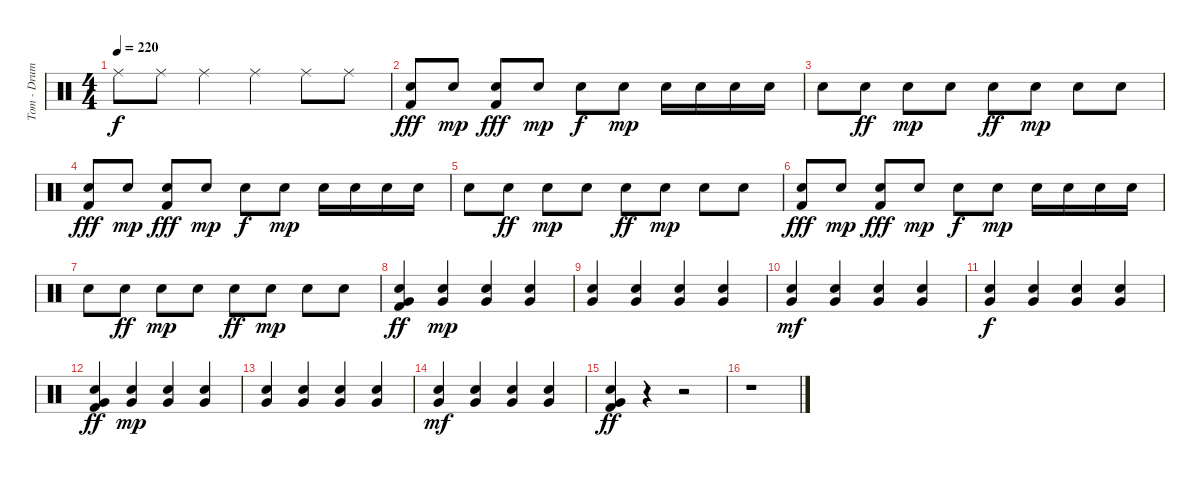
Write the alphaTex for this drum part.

\track ("Tom - Drums" "Tom - Drum") {instrument percussion}
\staff {score}
\articulation defaults
\ts (4 4)
\tempo 220
\clef neutral
\ks c "Ride (middle)".8{dy f} "Ride (middle)".8 "Ride (middle)".4 "Ride (middle)".4 "Ride (middle)".8 "Ride (middle)".8
|
("Electric Snare (hit)" "Kick (hit) 2").8{dy fff} "Electric Snare (hit)".8{dy mp} ("Electric Snare (hit)" "Kick (hit) 2").8{dy fff} "Electric Snare (hit)".8{dy mp} "Electric Snare (hit)".8{dy f} "Electric Snare (hit)".8{dy mp} "Electric Snare (hit)".16 "Electric Snare (hit)".16 "Electric Snare (hit)".16 "Electric Snare (hit)".16 |
"Electric Snare (hit)".8 "Electric Snare (hit)".8{dy ff} "Electric Snare (hit)".8{dy mp} "Electric Snare (hit)".8 "Electric Snare (hit)".8{dy ff} "Electric Snare (hit)".8{dy mp} "Electric Snare (hit)".8 "Electric Snare (hit)".8 |
("Electric Snare (hit)" "Kick (hit) 2").8{dy fff} "Electric Snare (hit)".8{dy mp} ("Electric Snare (hit)" "Kick (hit) 2").8{dy fff} "Electric Snare (hit)".8{dy mp} "Electric Snare (hit)".8{dy f} "Electric Snare (hit)".8{dy mp} "Electric Snare (hit)".16 "Electric Snare (hit)".16 "Electric Snare (hit)".16 "Electric Snare (hit)".16 |
"Electric Snare (hit)".8 "Electric Snare (hit)".8{dy ff} "Electric Snare (hit)".8{dy mp} "Electric Snare (hit)".8 "Electric Snare (hit)".8{dy ff} "Electric Snare (hit)".8{dy mp} "Electric Snare (hit)".8 "Electric Snare (hit)".8 |
("Electric Snare (hit)" "Kick (hit) 2").8{dy fff} "Electric Snare (hit)".8{dy mp} ("Electric Snare (hit)" "Kick (hit) 2").8{dy fff} "Electric Snare (hit)".8{dy mp} "Electric Snare (hit)".8{dy f} "Electric Snare (hit)".8{dy mp} "Electric Snare (hit)".16 "Electric Snare (hit)".16 "Electric Snare (hit)".16 "Electric Snare (hit)".16 |
"Electric Snare (hit)".8 "Electric Snare (hit)".8{dy ff} "Electric Snare (hit)".8{dy mp} "Electric Snare (hit)".8 "Electric Snare (hit)".8{dy ff} "Electric Snare (hit)".8{dy mp} "Electric Snare (hit)".8 "Electric Snare (hit)".8 |
("Electric Snare (hit)" "Very Low Tom (hit)" "Kick (hit) 2").4{dy ff} ("Electric Snare (hit)" "Very Low Tom (hit)").4{dy mp} ("Electric Snare (hit)" "Very Low Tom (hit)").4 ("Electric Snare (hit)" "Very Low Tom (hit)").4 |
("Electric Snare (hit)" "Very Low Tom (hit)").4 ("Electric Snare (hit)" "Very Low Tom (hit)").4 ("Electric Snare (hit)" "Very Low Tom (hit)").4 ("Electric Snare (hit)" "Very Low Tom (hit)").4 |
("Electric Snare (hit)" "Very Low Tom (hit)").4{dy mf} ("Electric Snare (hit)" "Very Low Tom (hit)").4 ("Electric Snare (hit)" "Very Low Tom (hit)").4 ("Electric Snare (hit)" "Very Low Tom (hit)").4 |
("Electric Snare (hit)" "Very Low Tom (hit)").4{dy f} ("Electric Snare (hit)" "Very Low Tom (hit)").4 ("Electric Snare (hit)" "Very Low Tom (hit)").4 ("Electric Snare (hit)" "Very Low Tom (hit)").4 |
("Electric Snare (hit)" "Very Low Tom (hit)" "Kick (hit) 2").4{dy ff} ("Electric Snare (hit)" "Very Low Tom (hit)").4{dy mp} ("Electric Snare (hit)" "Very Low Tom (hit)").4 ("Electric Snare (hit)" "Very Low Tom (hit)").4 |
("Electric Snare (hit)" "Very Low Tom (hit)").4 ("Electric Snare (hit)" "Very Low Tom (hit)").4 ("Electric Snare (hit)" "Very Low Tom (hit)").4 ("Electric Snare (hit)" "Very Low Tom (hit)").4 |
("Electric Snare (hit)" "Very Low Tom (hit)").4{dy mf} ("Electric Snare (hit)" "Very Low Tom (hit)").4 ("Electric Snare (hit)" "Very Low Tom (hit)").4 ("Electric Snare (hit)" "Very Low Tom (hit)").4 |
("Electric Snare (hit)" "Very Low Tom (hit)" "Kick (hit) 2").4{dy ff} r.4 r.2 |
r.1
